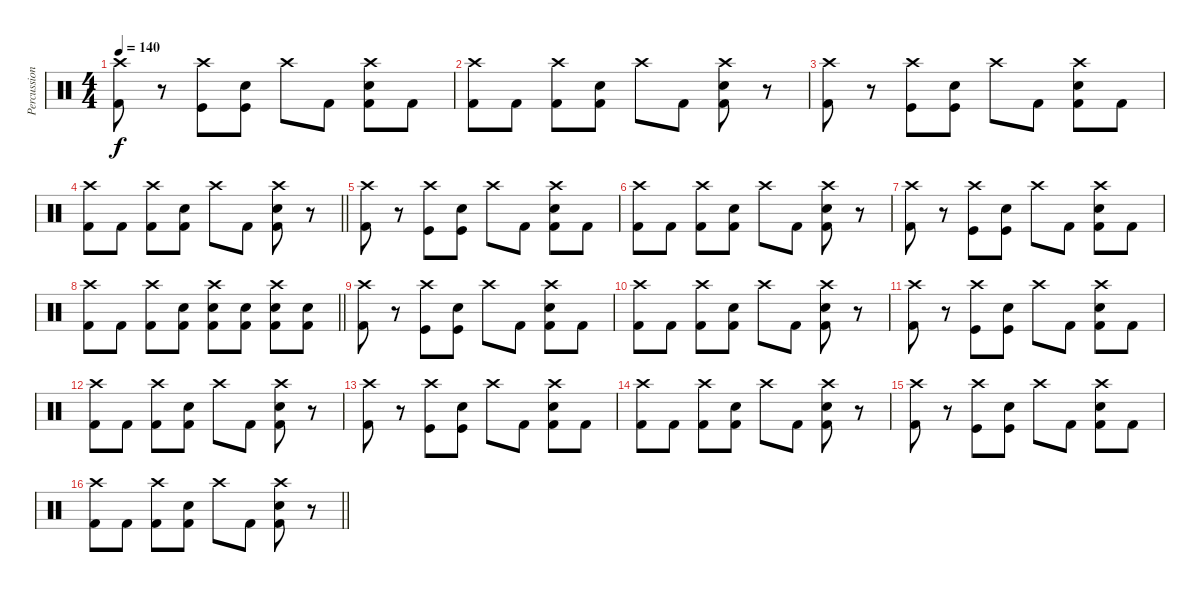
\track ("Percussion" "Percussion") {instrument percussion}
\staff {score}
\articulation defaults
\ts (4 4)
\tempo 140
\clef neutral
\ks c
("Crash high (hit)" "Kick (hit) 2").8{dy f} r.8 ("Crash high (hit)" "Kick (hit)").8 ("Electric Snare (hit)" "Kick (hit)").8 "Crash high (hit)".8 "Kick (hit) 2".8 ("Crash high (hit)" "Electric Snare (hit)" "Kick (hit) 2").8 "Kick (hit) 2".8 |
("Crash high (hit)" "Kick (hit) 2").8 "Kick (hit) 2".8 ("Crash high (hit)" "Kick (hit) 2").8 ("Electric Snare (hit)" "Kick (hit) 2").8 "Crash high (hit)".8 "Kick (hit) 2".8 ("Crash high (hit)" "Electric Snare (hit)" "Kick (hit) 2").8 r.8 |
("Crash high (hit)" "Kick (hit) 2").8 r.8 ("Crash high (hit)" "Kick (hit)").8 ("Electric Snare (hit)" "Kick (hit)").8 "Crash high (hit)".8 "Kick (hit) 2".8 ("Crash high (hit)" "Electric Snare (hit)" "Kick (hit) 2").8 "Kick (hit) 2".8 |
\barLineRight lightlight
("Crash high (hit)" "Kick (hit) 2").8 "Kick (hit) 2".8 ("Crash high (hit)" "Kick (hit) 2").8 ("Electric Snare (hit)" "Kick (hit) 2").8 "Crash high (hit)".8 "Kick (hit) 2".8 ("Crash high (hit)" "Electric Snare (hit)" "Kick (hit) 2").8 r.8 |
("Crash high (hit)" "Kick (hit) 2").8 r.8 ("Crash high (hit)" "Kick (hit)").8 ("Electric Snare (hit)" "Kick (hit)").8 "Crash high (hit)".8 "Kick (hit) 2".8 ("Crash high (hit)" "Electric Snare (hit)" "Kick (hit) 2").8 "Kick (hit) 2".8 |
("Crash high (hit)" "Kick (hit) 2").8 "Kick (hit) 2".8 ("Crash high (hit)" "Kick (hit) 2").8 ("Electric Snare (hit)" "Kick (hit) 2").8 "Crash high (hit)".8 "Kick (hit) 2".8 ("Crash high (hit)" "Electric Snare (hit)" "Kick (hit) 2").8 r.8 |
("Crash high (hit)" "Kick (hit) 2").8 r.8 ("Crash high (hit)" "Kick (hit)").8 ("Electric Snare (hit)" "Kick (hit)").8 "Crash high (hit)".8 "Kick (hit) 2".8 ("Crash high (hit)" "Electric Snare (hit)" "Kick (hit) 2").8 "Kick (hit) 2".8 |
\barLineRight lightlight
("Crash high (hit)" "Kick (hit) 2").8 "Kick (hit) 2".8 ("Crash high (hit)" "Kick (hit) 2").8 ("Electric Snare (hit)" "Kick (hit) 2").8 ("Crash high (hit)" "Electric Snare (hit)" "Kick (hit) 2").8 ("Electric Snare (hit)" "Kick (hit) 2").8 ("Crash high (hit)" "Electric Snare (hit)" "Kick (hit) 2").8 ("Electric Snare (hit)" "Kick (hit) 2").8 |
("Crash high (hit)" "Kick (hit) 2").8 r.8 ("Crash high (hit)" "Kick (hit)").8 ("Electric Snare (hit)" "Kick (hit)").8 "Crash high (hit)".8 "Kick (hit) 2".8 ("Crash high (hit)" "Electric Snare (hit)" "Kick (hit) 2").8 "Kick (hit) 2".8 |
("Crash high (hit)" "Kick (hit) 2").8 "Kick (hit) 2".8 ("Crash high (hit)" "Kick (hit) 2").8 ("Electric Snare (hit)" "Kick (hit) 2").8 "Crash high (hit)".8 "Kick (hit) 2".8 ("Crash high (hit)" "Electric Snare (hit)" "Kick (hit) 2").8 r.8 |
("Crash high (hit)" "Kick (hit) 2").8 r.8 ("Crash high (hit)" "Kick (hit)").8 ("Electric Snare (hit)" "Kick (hit)").8 "Crash high (hit)".8 "Kick (hit) 2".8 ("Crash high (hit)" "Electric Snare (hit)" "Kick (hit) 2").8 "Kick (hit) 2".8 |
("Crash high (hit)" "Kick (hit) 2").8 "Kick (hit) 2".8 ("Crash high (hit)" "Kick (hit) 2").8 ("Electric Snare (hit)" "Kick (hit) 2").8 "Crash high (hit)".8 "Kick (hit) 2".8 ("Crash high (hit)" "Electric Snare (hit)" "Kick (hit) 2").8 r.8 |
("Crash high (hit)" "Kick (hit) 2").8 r.8 ("Crash high (hit)" "Kick (hit)").8 ("Electric Snare (hit)" "Kick (hit)").8 "Crash high (hit)".8 "Kick (hit) 2".8 ("Crash high (hit)" "Electric Snare (hit)" "Kick (hit) 2").8 "Kick (hit) 2".8 |
("Crash high (hit)" "Kick (hit) 2").8 "Kick (hit) 2".8 ("Crash high (hit)" "Kick (hit) 2").8 ("Electric Snare (hit)" "Kick (hit) 2").8 "Crash high (hit)".8 "Kick (hit) 2".8 ("Crash high (hit)" "Electric Snare (hit)" "Kick (hit) 2").8 r.8 |
("Crash high (hit)" "Kick (hit) 2").8 r.8 ("Crash high (hit)" "Kick (hit)").8 ("Electric Snare (hit)" "Kick (hit)").8 "Crash high (hit)".8 "Kick (hit) 2".8 ("Crash high (hit)" "Electric Snare (hit)" "Kick (hit) 2").8 "Kick (hit) 2".8 |
\barLineRight lightlight
("Crash high (hit)" "Kick (hit) 2").8 "Kick (hit) 2".8 ("Crash high (hit)" "Kick (hit) 2").8 ("Electric Snare (hit)" "Kick (hit) 2").8 "Crash high (hit)".8 "Kick (hit) 2".8 ("Crash high (hit)" "Electric Snare (hit)" "Kick (hit) 2").8 r.8
